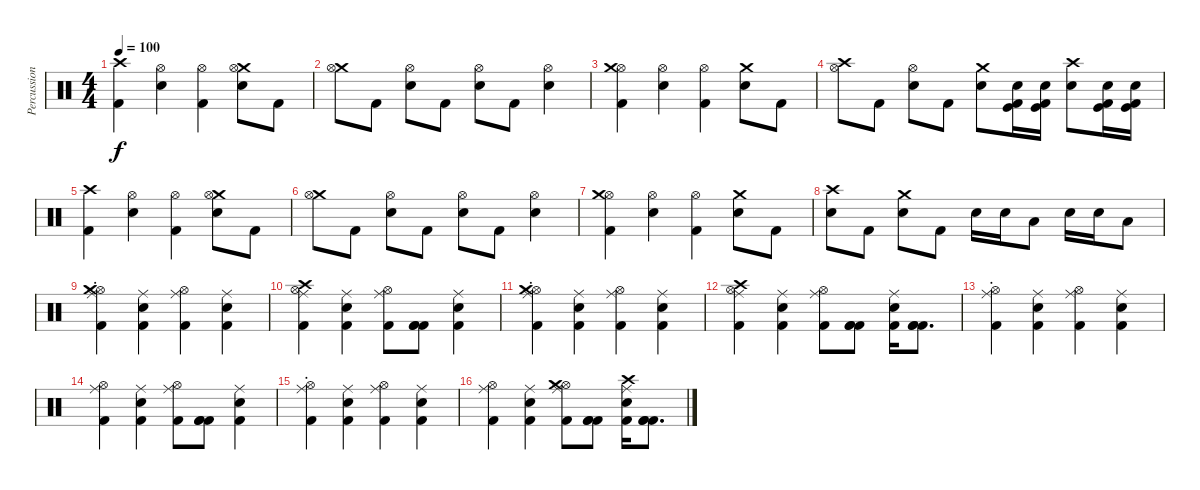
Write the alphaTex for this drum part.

\track ("Percussions" "Percussion") {instrument percussion}
\staff {score}
\articulation defaults
\ts (4 4)
\tempo 100
\clef neutral
\ks c
("Crash high (hit)" "Kick (hit) 2").4{dy f} ("Hi-Hat (open)" "Snare (hit) 2").4 ("Hi-Hat (open)" "Kick (hit) 2").4 ("Crash medium (hit)" "Hi-Hat (open)" "Snare (hit) 2").8 "Kick (hit) 2".8 |
("Crash medium (hit)" "Hi-Hat (open)").8 "Kick (hit) 2".8 ("Hi-Hat (open)" "Snare (hit) 2").8 "Kick (hit) 2".8 ("Hi-Hat (open)" "Snare (hit) 2").8 "Kick (hit) 2".8 ("Hi-Hat (open)" "Snare (hit) 2").4 |
("Hi-Hat (open)" "Crash medium (hit)" "Kick (hit) 2").4 ("Hi-Hat (open)" "Snare (hit) 2").4 ("Hi-Hat (open)" "Kick (hit) 2").4 ("Crash medium (hit)" "Snare (hit) 2").8 "Kick (hit) 2".8 |
("Crash high (hit)" "Hi-Hat (open)").8 "Kick (hit) 2".8 ("Hi-Hat (open)" "Snare (hit) 2").8 "Kick (hit) 2".8 ("Crash medium (hit)" "Snare (hit) 2").8 ("Snare (hit) 2" "Kick (hit)" "Kick (hit) 2").16 ("Snare (hit) 2" "Kick (hit)" "Kick (hit) 2").16 ("Crash high (hit)" "Snare (hit) 2").8 ("Snare (hit) 2" "Kick (hit)" "Kick (hit) 2").16 ("Snare (hit) 2" "Kick (hit)" "Kick (hit) 2").16 |
("Crash high (hit)" "Kick (hit) 2").4 ("Hi-Hat (open)" "Snare (hit) 2").4 ("Hi-Hat (open)" "Kick (hit) 2").4 ("Crash medium (hit)" "Hi-Hat (open)" "Snare (hit) 2").8 "Kick (hit) 2".8 |
("Crash medium (hit)" "Hi-Hat (open)").8 "Kick (hit) 2".8 ("Hi-Hat (open)" "Snare (hit) 2").8 "Kick (hit) 2".8 ("Hi-Hat (open)" "Snare (hit) 2").8 "Kick (hit) 2".8 ("Hi-Hat (open)" "Snare (hit) 2").4 |
("Hi-Hat (open)" "Crash medium (hit)" "Kick (hit) 2").4 ("Hi-Hat (open)" "Snare (hit) 2").4 ("Hi-Hat (open)" "Kick (hit) 2").4 ("Crash medium (hit)" "Snare (hit) 2").8 "Kick (hit) 2".8 |
("Crash high (hit)" "Snare (hit) 2").8 "Kick (hit) 2".8 ("Crash medium (hit)" "Snare (hit) 2").8 "Kick (hit) 2".8 "Snare (hit) 2".16 "Snare (hit) 2".16 "Low Tom (hit)".8 "Snare (hit) 2".16 "Snare (hit) 2".16 "Low Tom (hit)".8 |
("Ride (middle)" "Kick (hit) 2" "Hi-Hat (open)"{st} "Crash medium (hit)").4 ("Snare (hit) 2" "Kick (hit) 2" "Ride (middle)").4 ("Kick (hit) 2" "Ride (middle)" "Hi-Hat (open)").4 ("Kick (hit) 2" "Snare (hit) 2" "Ride (middle)").4 |
("Kick (hit) 2" "Ride (middle)" "Hi-Hat (open)" "Crash high (hit)").4 ("Kick (hit) 2" "Snare (hit) 2" "Ride (middle)").4 ("Kick (hit) 2" "Ride (middle)" "Hi-Hat (open)").8 ("Kick (hit) 2" "Kick (hit) 2" "Kick (hit) 2").8 ("Kick (hit) 2" "Snare (hit) 2" "Ride (middle)").4 |
("Ride (middle)" "Kick (hit) 2" "Hi-Hat (open)"{st} "Crash medium (hit)").4 ("Snare (hit) 2" "Kick (hit) 2" "Ride (middle)").4 ("Kick (hit) 2" "Ride (middle)" "Hi-Hat (open)").4 ("Kick (hit) 2" "Snare (hit) 2" "Ride (middle)").4 |
("Kick (hit) 2" "Ride (middle)" "Hi-Hat (open)" "Crash high (hit)").4 ("Kick (hit) 2" "Snare (hit) 2" "Ride (middle)").4 ("Kick (hit) 2" "Ride (middle)" "Hi-Hat (open)").8 ("Kick (hit) 2" "Kick (hit) 2" "Kick (hit) 2").8 ("Kick (hit) 2" "Snare (hit) 2" "Ride (middle)").16 ("Kick (hit) 2" "Kick (hit) 2" "Kick (hit) 2").8{d} |
("Ride (middle)" "Kick (hit) 2" "Hi-Hat (open)"{st}).4 ("Snare (hit) 2" "Kick (hit) 2" "Ride (middle)").4 ("Kick (hit) 2" "Ride (middle)" "Hi-Hat (open)").4 ("Kick (hit) 2" "Snare (hit) 2" "Ride (middle)").4 |
("Kick (hit) 2" "Ride (middle)" "Hi-Hat (open)").4 ("Kick (hit) 2" "Snare (hit) 2" "Ride (middle)").4 ("Kick (hit) 2" "Ride (middle)" "Hi-Hat (open)").8 ("Kick (hit) 2" "Kick (hit) 2" "Kick (hit) 2").8 ("Kick (hit) 2" "Snare (hit) 2" "Ride (middle)").4 |
("Ride (middle)" "Kick (hit) 2" "Hi-Hat (open)"{st}).4 ("Snare (hit) 2" "Kick (hit) 2" "Ride (middle)").4 ("Kick (hit) 2" "Ride (middle)" "Hi-Hat (open)").4 ("Kick (hit) 2" "Snare (hit) 2" "Ride (middle)").4 |
("Kick (hit) 2" "Ride (middle)" "Hi-Hat (open)").4 ("Kick (hit) 2" "Snare (hit) 2" "Ride (middle)").4 ("Kick (hit) 2" "Ride (middle)" "Hi-Hat (open)" "Crash medium (hit)").8 ("Kick (hit) 2" "Kick (hit) 2" "Kick (hit) 2").8 ("Kick (hit) 2" "Snare (hit) 2" "Ride (middle)" "Crash high (hit)").16 ("Kick (hit) 2" "Kick (hit) 2" "Kick (hit) 2").8{d}
